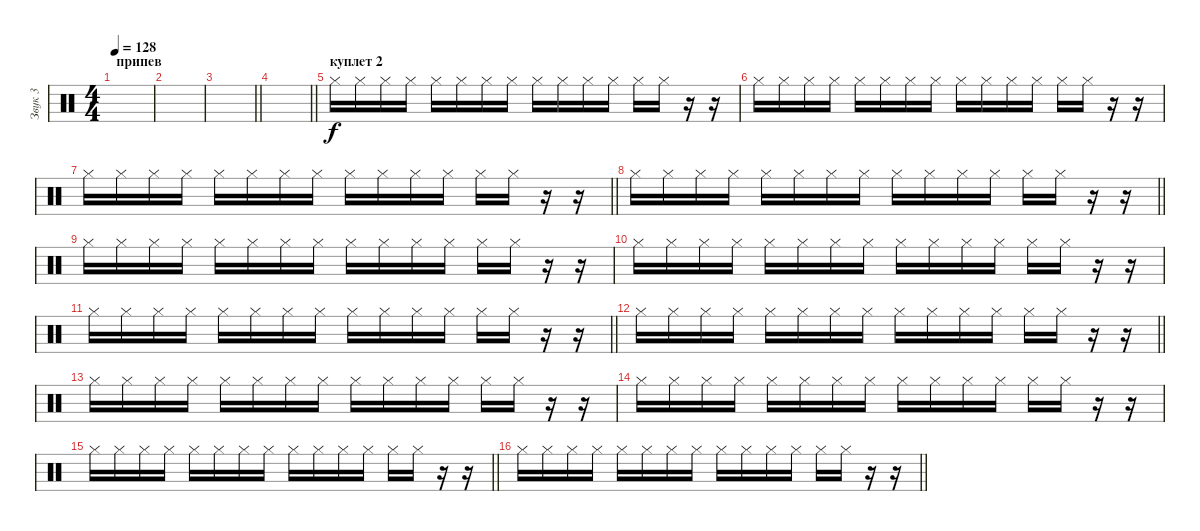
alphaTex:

\track ("Звук 3" "Звук 3") {instrument percussion}
\staff {score}
\articulation defaults
\ts (4 4)
\section ("" "припев")
\tempo 128
\clef neutral
\ks c
|
|
\barLineRight lightlight
|
\barLineRight lightlight
|
\section ("" "куплет 2")
"Hi-Hat (closed)".16 "Hi-Hat (closed)".16 "Hi-Hat (closed)".16 "Hi-Hat (closed)".16 "Hi-Hat (closed)".16 "Hi-Hat (closed)".16 "Hi-Hat (closed)".16 "Hi-Hat (closed)".16 "Hi-Hat (closed)".16 "Hi-Hat (closed)".16 "Hi-Hat (closed)".16 "Hi-Hat (closed)".16 "Hi-Hat (closed)".16 "Hi-Hat (closed)".16 r.16 r.16 |
"Hi-Hat (closed)".16 "Hi-Hat (closed)".16 "Hi-Hat (closed)".16 "Hi-Hat (closed)".16 "Hi-Hat (closed)".16 "Hi-Hat (closed)".16 "Hi-Hat (closed)".16 "Hi-Hat (closed)".16 "Hi-Hat (closed)".16 "Hi-Hat (closed)".16 "Hi-Hat (closed)".16 "Hi-Hat (closed)".16 "Hi-Hat (closed)".16 "Hi-Hat (closed)".16 r.16 r.16 |
\barLineRight lightlight "Hi-Hat (closed)".16 "Hi-Hat (closed)".16 "Hi-Hat (closed)".16 "Hi-Hat (closed)".16 "Hi-Hat (closed)".16 "Hi-Hat (closed)".16 "Hi-Hat (closed)".16 "Hi-Hat (closed)".16 "Hi-Hat (closed)".16 "Hi-Hat (closed)".16 "Hi-Hat (closed)".16 "Hi-Hat (closed)".16 "Hi-Hat (closed)".16 "Hi-Hat (closed)".16
r.16 r.16 |
\barLineRight lightlight "Hi-Hat (closed)".16 "Hi-Hat (closed)".16 "Hi-Hat (closed)".16 "Hi-Hat (closed)".16 "Hi-Hat (closed)".16 "Hi-Hat (closed)".16 "Hi-Hat (closed)".16 "Hi-Hat (closed)".16 "Hi-Hat (closed)".16 "Hi-Hat (closed)".16 "Hi-Hat (closed)".16 "Hi-Hat (closed)".16 "Hi-Hat (closed)".16 "Hi-Hat (closed)".16
r.16 r.16 |
"Hi-Hat (closed)".16 "Hi-Hat (closed)".16 "Hi-Hat (closed)".16 "Hi-Hat (closed)".16 "Hi-Hat (closed)".16 "Hi-Hat (closed)".16 "Hi-Hat (closed)".16 "Hi-Hat (closed)".16 "Hi-Hat (closed)".16 "Hi-Hat (closed)".16 "Hi-Hat (closed)".16 "Hi-Hat (closed)".16 "Hi-Hat (closed)".16 "Hi-Hat (closed)".16 r.16 r.16 |
"Hi-Hat (closed)".16 "Hi-Hat (closed)".16 "Hi-Hat (closed)".16 "Hi-Hat (closed)".16 "Hi-Hat (closed)".16 "Hi-Hat (closed)".16 "Hi-Hat (closed)".16 "Hi-Hat (closed)".16 "Hi-Hat (closed)".16 "Hi-Hat (closed)".16 "Hi-Hat (closed)".16 "Hi-Hat (closed)".16 "Hi-Hat (closed)".16 "Hi-Hat (closed)".16 r.16 r.16 |
\barLineRight lightlight "Hi-Hat (closed)".16 "Hi-Hat (closed)".16 "Hi-Hat (closed)".16 "Hi-Hat (closed)".16 "Hi-Hat (closed)".16 "Hi-Hat (closed)".16 "Hi-Hat (closed)".16 "Hi-Hat (closed)".16 "Hi-Hat (closed)".16 "Hi-Hat (closed)".16 "Hi-Hat (closed)".16 "Hi-Hat (closed)".16 "Hi-Hat (closed)".16 "Hi-Hat (closed)".16
r.16 r.16 |
\barLineRight lightlight "Hi-Hat (closed)".16 "Hi-Hat (closed)".16 "Hi-Hat (closed)".16 "Hi-Hat (closed)".16 "Hi-Hat (closed)".16 "Hi-Hat (closed)".16 "Hi-Hat (closed)".16 "Hi-Hat (closed)".16 "Hi-Hat (closed)".16 "Hi-Hat (closed)".16 "Hi-Hat (closed)".16 "Hi-Hat (closed)".16 "Hi-Hat (closed)".16 "Hi-Hat (closed)".16
r.16 r.16 |
"Hi-Hat (closed)".16 "Hi-Hat (closed)".16 "Hi-Hat (closed)".16 "Hi-Hat (closed)".16 "Hi-Hat (closed)".16 "Hi-Hat (closed)".16 "Hi-Hat (closed)".16 "Hi-Hat (closed)".16 "Hi-Hat (closed)".16 "Hi-Hat (closed)".16 "Hi-Hat (closed)".16 "Hi-Hat (closed)".16 "Hi-Hat (closed)".16 "Hi-Hat (closed)".16 r.16 r.16 |
"Hi-Hat (closed)".16 "Hi-Hat (closed)".16 "Hi-Hat (closed)".16 "Hi-Hat (closed)".16 "Hi-Hat (closed)".16 "Hi-Hat (closed)".16 "Hi-Hat (closed)".16 "Hi-Hat (closed)".16 "Hi-Hat (closed)".16 "Hi-Hat (closed)".16 "Hi-Hat (closed)".16 "Hi-Hat (closed)".16 "Hi-Hat (closed)".16 "Hi-Hat (closed)".16 r.16 r.16 |
\barLineRight lightlight "Hi-Hat (closed)".16 "Hi-Hat (closed)".16 "Hi-Hat (closed)".16 "Hi-Hat (closed)".16 "Hi-Hat (closed)".16 "Hi-Hat (closed)".16 "Hi-Hat (closed)".16 "Hi-Hat (closed)".16 "Hi-Hat (closed)".16 "Hi-Hat (closed)".16 "Hi-Hat (closed)".16 "Hi-Hat (closed)".16 "Hi-Hat (closed)".16 "Hi-Hat (closed)".16
r.16 r.16 |
\barLineRight lightlight "Hi-Hat (closed)".16 "Hi-Hat (closed)".16 "Hi-Hat (closed)".16 "Hi-Hat (closed)".16 "Hi-Hat (closed)".16 "Hi-Hat (closed)".16 "Hi-Hat (closed)".16 "Hi-Hat (closed)".16 "Hi-Hat (closed)".16 "Hi-Hat (closed)".16 "Hi-Hat (closed)".16 "Hi-Hat (closed)".16 "Hi-Hat (closed)".16 "Hi-Hat (closed)".16
r.16 r.16
